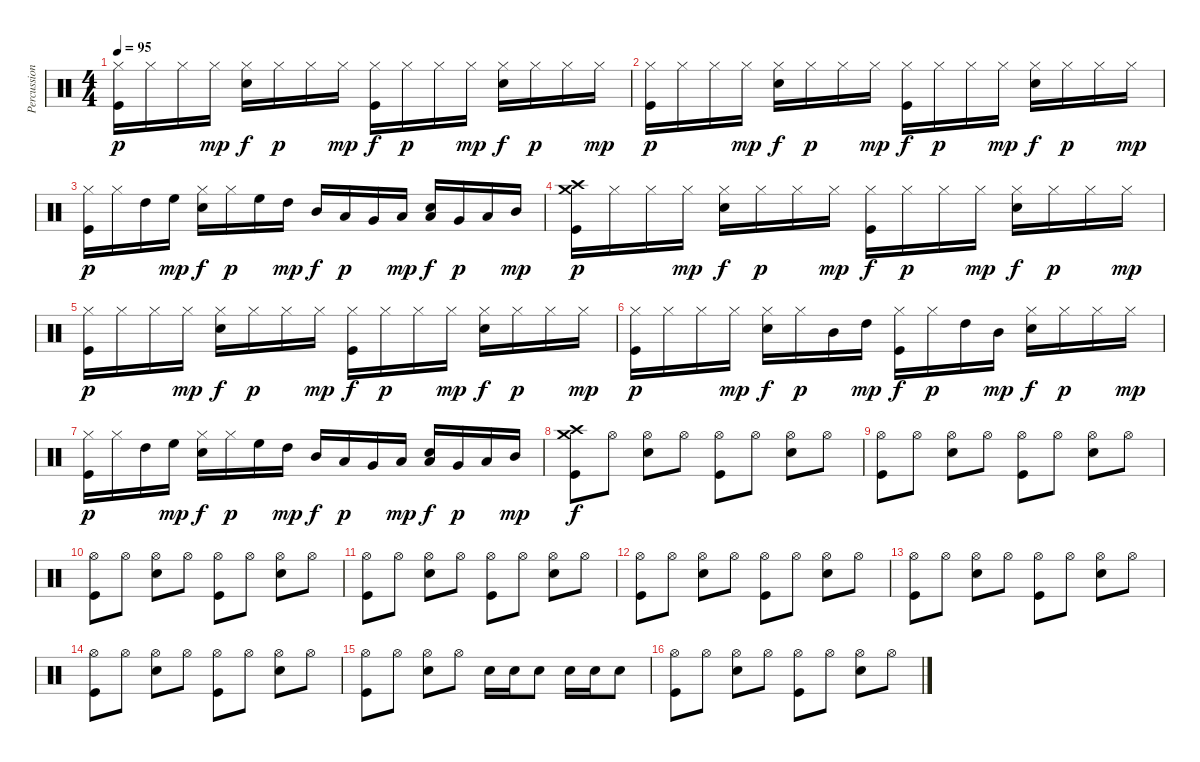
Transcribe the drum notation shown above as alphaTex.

\track ("Percussion" "Percussion") {instrument percussion}
\staff {score}
\articulation defaults
\ts (4 4)
\tempo 95
\clef neutral
\ks c
("Hi-Hat (closed)" "Kick (hit)").16{dy p} "Hi-Hat (closed)".16 "Hi-Hat (closed)".16 "Hi-Hat (closed)".16{dy mp} ("Hi-Hat (closed)" "Snare (hit) 2").16{dy f} "Hi-Hat (closed)".16{dy p} "Hi-Hat (closed)".16 "Hi-Hat (closed)".16{dy mp} ("Hi-Hat (closed)" "Kick (hit)").16{dy f} "Hi-Hat (closed)".16{dy p} "Hi-Hat (closed)".16 "Hi-Hat (closed)".16{dy mp} ("Hi-Hat (closed)" "Snare (hit) 2").16{dy f} "Hi-Hat (closed)".16{dy p} "Hi-Hat (closed)".16 "Hi-Hat (closed)".16{dy mp} |
("Hi-Hat (closed)" "Kick (hit)").16{dy p} "Hi-Hat (closed)".16 "Hi-Hat (closed)".16 "Hi-Hat (closed)".16{dy mp} ("Hi-Hat (closed)" "Snare (hit) 2").16{dy f} "Hi-Hat (closed)".16{dy p} "Hi-Hat (closed)".16 "Hi-Hat (closed)".16{dy mp} ("Hi-Hat (closed)" "Kick (hit)").16{dy f} "Hi-Hat (closed)".16{dy p} "Hi-Hat (closed)".16 "Hi-Hat (closed)".16{dy mp} ("Hi-Hat (closed)" "Snare (hit) 2").16{dy f} "Hi-Hat (closed)".16{dy p} "Hi-Hat (closed)".16 "Hi-Hat (closed)".16{dy mp} |
("Hi-Hat (closed)" "Kick (hit)").16{dy p} "Hi-Hat (closed)".16 "High Tom (hit)".16 "High Floor Tom (hit)".16{dy mp} ("Hi-Hat (closed)" "Snare (hit) 2").16{dy f} "Hi-Hat (closed)".16{dy p} "High Floor Tom (hit)".16 "High Tom (hit)".16{dy mp} "Mid Tom (hit)".16{dy f} "Low Tom (hit)".16{dy p} "Very Low Tom (hit)".16 "Low Floor Tom (hit)".16{dy mp} ("Low Floor Tom (hit)" "Snare (hit) 2").16{dy f} "Very Low Tom (hit)".16{dy p} "Low Tom (hit)".16 "Mid Tom (hit)".16{dy mp} |
("Crash medium (hit)" "Crash high (hit)" "Kick (hit)").16{dy p} "Hi-Hat (closed)".16 "Hi-Hat (closed)".16 "Hi-Hat (closed)".16{dy mp} ("Hi-Hat (closed)" "Snare (hit) 2").16{dy f} "Hi-Hat (closed)".16{dy p} "Hi-Hat (closed)".16 "Hi-Hat (closed)".16{dy mp} ("Hi-Hat (closed)" "Kick (hit)").16{dy f} "Hi-Hat (closed)".16{dy p} "Hi-Hat (closed)".16 "Hi-Hat (closed)".16{dy mp} ("Hi-Hat (closed)" "Snare (hit) 2").16{dy f} "Hi-Hat (closed)".16{dy p} "Hi-Hat (closed)".16 "Hi-Hat (closed)".16{dy mp} |
("Hi-Hat (closed)" "Kick (hit)").16{dy p} "Hi-Hat (closed)".16 "Hi-Hat (closed)".16 "Hi-Hat (closed)".16{dy mp} ("Hi-Hat (closed)" "Snare (hit) 2").16{dy f} "Hi-Hat (closed)".16{dy p} "Hi-Hat (closed)".16 "Hi-Hat (closed)".16{dy mp} ("Hi-Hat (closed)" "Kick (hit)").16{dy f} "Hi-Hat (closed)".16{dy p} "Hi-Hat (closed)".16 "Hi-Hat (closed)".16{dy mp} ("Hi-Hat (closed)" "Snare (hit) 2").16{dy f} "Hi-Hat (closed)".16{dy p} "Hi-Hat (closed)".16 "Hi-Hat (closed)".16{dy mp} |
("Hi-Hat (closed)" "Kick (hit)").16{dy p} "Hi-Hat (closed)".16 "Hi-Hat (closed)".16 "Hi-Hat (closed)".16{dy mp} ("Hi-Hat (closed)" "Snare (hit) 2").16{dy f} "Hi-Hat (closed)".16{dy p} "Mid Tom (hit)".16 "High Tom (hit)".16{dy mp} ("Hi-Hat (closed)" "Kick (hit)").16{dy f} "Hi-Hat (closed)".16{dy p} "High Tom (hit)".16 "Mid Tom (hit)".16{dy mp} ("Hi-Hat (closed)" "Snare (hit) 2").16{dy f} "Hi-Hat (closed)".16{dy p} "Hi-Hat (closed)".16 "Hi-Hat (closed)".16{dy mp} |
("Hi-Hat (closed)" "Kick (hit)").16{dy p} "Hi-Hat (closed)".16 "High Tom (hit)".16 "High Floor Tom (hit)".16{dy mp} ("Hi-Hat (closed)" "Snare (hit) 2").16{dy f} "Hi-Hat (closed)".16{dy p} "High Floor Tom (hit)".16 "High Tom (hit)".16{dy mp} "Mid Tom (hit)".16{dy f} "Low Tom (hit)".16{dy p} "Very Low Tom (hit)".16 "Low Floor Tom (hit)".16{dy mp} ("Low Floor Tom (hit)" "Snare (hit) 2").16{dy f} "Very Low Tom (hit)".16{dy p} "Low Tom (hit)".16 "Mid Tom (hit)".16{dy mp} |
("Crash medium (hit)" "Crash high (hit)" "Kick (hit)").8{dy f} "Hi-Hat (open)".8 ("Hi-Hat (open)" "Electric Snare (hit)").8 "Hi-Hat (open)".8 ("Hi-Hat (open)" "Kick (hit)").8 "Hi-Hat (open)".8 ("Hi-Hat (open)" "Electric Snare (hit)").8 "Hi-Hat (open)".8 |
("Hi-Hat (open)" "Kick (hit)").8 "Hi-Hat (open)".8 ("Hi-Hat (open)" "Electric Snare (hit)").8 "Hi-Hat (open)".8 ("Hi-Hat (open)" "Kick (hit)").8 "Hi-Hat (open)".8 ("Hi-Hat (open)" "Electric Snare (hit)").8 "Hi-Hat (open)".8 |
("Hi-Hat (open)" "Kick (hit)").8 "Hi-Hat (open)".8 ("Hi-Hat (open)" "Electric Snare (hit)").8 "Hi-Hat (open)".8 ("Hi-Hat (open)" "Kick (hit)").8 "Hi-Hat (open)".8 ("Hi-Hat (open)" "Electric Snare (hit)").8 "Hi-Hat (open)".8 |
("Hi-Hat (open)" "Kick (hit)").8 "Hi-Hat (open)".8 ("Hi-Hat (open)" "Electric Snare (hit)").8 "Hi-Hat (open)".8 ("Hi-Hat (open)" "Kick (hit)").8 "Hi-Hat (open)".8 ("Hi-Hat (open)" "Electric Snare (hit)").8 "Hi-Hat (open)".8 |
("Hi-Hat (open)" "Kick (hit)").8 "Hi-Hat (open)".8 ("Hi-Hat (open)" "Electric Snare (hit)").8 "Hi-Hat (open)".8 ("Hi-Hat (open)" "Kick (hit)").8 "Hi-Hat (open)".8 ("Hi-Hat (open)" "Electric Snare (hit)").8 "Hi-Hat (open)".8 |
("Hi-Hat (open)" "Kick (hit)").8 "Hi-Hat (open)".8 ("Hi-Hat (open)" "Electric Snare (hit)").8 "Hi-Hat (open)".8 ("Hi-Hat (open)" "Kick (hit)").8 "Hi-Hat (open)".8 ("Hi-Hat (open)" "Electric Snare (hit)").8 "Hi-Hat (open)".8 |
("Hi-Hat (open)" "Kick (hit)").8 "Hi-Hat (open)".8 ("Hi-Hat (open)" "Electric Snare (hit)").8 "Hi-Hat (open)".8 ("Hi-Hat (open)" "Kick (hit)").8 "Hi-Hat (open)".8 ("Hi-Hat (open)" "Electric Snare (hit)").8 "Hi-Hat (open)".8 |
("Hi-Hat (open)" "Kick (hit)").8 "Hi-Hat (open)".8 ("Hi-Hat (open)" "Electric Snare (hit)").8 "Hi-Hat (open)".8 "Electric Snare (hit)".16 "Electric Snare (hit)".16 "Snare (hit) 2".8 "Electric Snare (hit)".16 "Electric Snare (hit)".16 "Snare (hit) 2".8 |
("Hi-Hat (open)" "Kick (hit)").8 "Hi-Hat (open)".8 ("Hi-Hat (open)" "Electric Snare (hit)").8 "Hi-Hat (open)".8 ("Hi-Hat (open)" "Kick (hit)").8 "Hi-Hat (open)".8 ("Hi-Hat (open)" "Electric Snare (hit)").8 "Hi-Hat (open)".8
